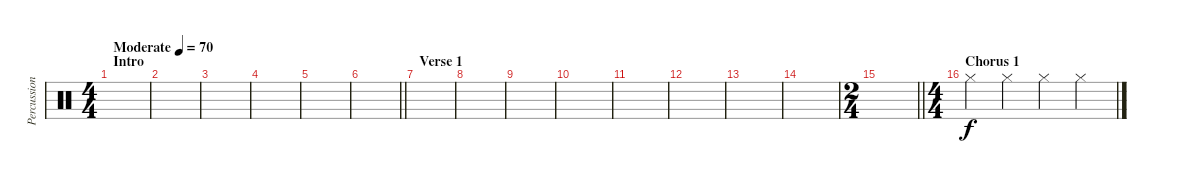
\track ("Percussion" "Percussion") {instrument percussion}
\staff {score}
\articulation defaults
\ts (4 4)
\section ("" "Intro")
\tempo (70 "Moderate")
\clef neutral
\ks c
|
|
|
|
|
\barLineRight lightlight
|
\section ("" "Verse 1")
|
|
|
|
|
|
|
|
\ts (2 4)
\barLineRight lightlight
|
\ts (4 4)
\section ("" "Chorus 1")
"Hi-Hat (closed)".4 "Hi-Hat (closed)".4 "Hi-Hat (closed)".4 "Hi-Hat (closed)".4
